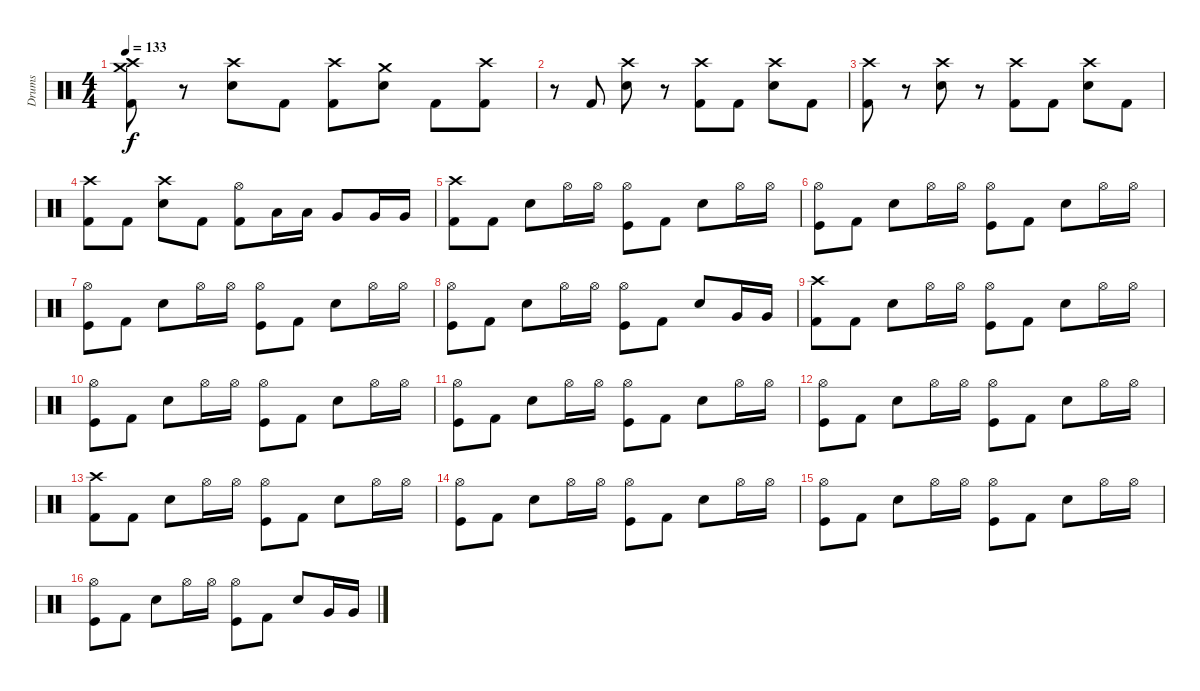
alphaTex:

\track ("Drums" "Drums") {instrument percussion}
\staff {score}
\articulation defaults
\ts (4 4)
\tempo 133
\clef neutral
\ks c
("Crash high (hit)" "Crash medium (hit)" "Kick (hit) 2").8{dy f} r.8 ("Crash high (hit)" "Electric Snare (hit)").8 "Kick (hit) 2".8 ("Crash high (hit)" "Kick (hit) 2").8 ("Crash medium (hit)" "Electric Snare (hit)").8 "Kick (hit) 2".8 ("Crash high (hit)" "Kick (hit) 2").8 |
r.8 "Kick (hit) 2".8 ("Crash high (hit)" "Electric Snare (hit)").8 r.8 ("Crash high (hit)" "Kick (hit) 2").8 "Kick (hit) 2".8 ("Crash high (hit)" "Electric Snare (hit)").8 "Kick (hit) 2".8 |
("Crash high (hit)" "Kick (hit) 2").8 r.8 ("Crash high (hit)" "Electric Snare (hit)").8 r.8 ("Crash high (hit)" "Kick (hit) 2").8 "Kick (hit) 2".8 ("Crash high (hit)" "Electric Snare (hit)").8 "Kick (hit) 2".8 |
("Crash high (hit)" "Kick (hit) 2").8 "Kick (hit) 2".8 ("Crash high (hit)" "Electric Snare (hit)").8 "Kick (hit) 2".8 ("Hi-Hat (open)" "Kick (hit) 2").8 "Low Tom (hit)".16 "Low Tom (hit)".16 "Very Low Tom (hit)".8 "Very Low Tom (hit)".16 "Very Low Tom (hit)".16 |
("Crash high (hit)" "Kick (hit) 2").8 "Kick (hit) 2".8 "Electric Snare (hit)".8 "Hi-Hat (open)".16 "Hi-Hat (open)".16 ("Hi-Hat (open)" "Kick (hit)").8 "Kick (hit) 2".8 "Electric Snare (hit)".8 "Hi-Hat (open)".16 "Hi-Hat (open)".16 |
("Hi-Hat (open)" "Kick (hit)").8 "Kick (hit) 2".8 "Electric Snare (hit)".8 "Hi-Hat (open)".16 "Hi-Hat (open)".16 ("Hi-Hat (open)" "Kick (hit)").8 "Kick (hit) 2".8 "Electric Snare (hit)".8 "Hi-Hat (open)".16 "Hi-Hat (open)".16 |
("Hi-Hat (open)" "Kick (hit)").8 "Kick (hit) 2".8 "Electric Snare (hit)".8 "Hi-Hat (open)".16 "Hi-Hat (open)".16 ("Hi-Hat (open)" "Kick (hit)").8 "Kick (hit) 2".8 "Electric Snare (hit)".8 "Hi-Hat (open)".16 "Hi-Hat (open)".16 |
("Hi-Hat (open)" "Kick (hit)").8 "Kick (hit) 2".8 "Electric Snare (hit)".8 "Hi-Hat (open)".16 "Hi-Hat (open)".16 ("Hi-Hat (open)" "Kick (hit)").8 "Kick (hit) 2".8 "Electric Snare (hit)".8 "Very Low Tom (hit)".16 "Very Low Tom (hit)".16 |
("Crash high (hit)" "Kick (hit) 2").8 "Kick (hit) 2".8 "Electric Snare (hit)".8 "Hi-Hat (open)".16 "Hi-Hat (open)".16 ("Hi-Hat (open)" "Kick (hit)").8 "Kick (hit) 2".8 "Electric Snare (hit)".8 "Hi-Hat (open)".16 "Hi-Hat (open)".16 |
("Hi-Hat (open)" "Kick (hit)").8 "Kick (hit) 2".8 "Electric Snare (hit)".8 "Hi-Hat (open)".16 "Hi-Hat (open)".16 ("Hi-Hat (open)" "Kick (hit)").8 "Kick (hit) 2".8 "Electric Snare (hit)".8 "Hi-Hat (open)".16 "Hi-Hat (open)".16 |
("Hi-Hat (open)" "Kick (hit)").8 "Kick (hit) 2".8 "Electric Snare (hit)".8 "Hi-Hat (open)".16 "Hi-Hat (open)".16 ("Hi-Hat (open)" "Kick (hit)").8 "Kick (hit) 2".8 "Electric Snare (hit)".8 "Hi-Hat (open)".16 "Hi-Hat (open)".16 |
("Hi-Hat (open)" "Kick (hit)").8 "Kick (hit) 2".8 "Electric Snare (hit)".8 "Hi-Hat (open)".16 "Hi-Hat (open)".16 ("Hi-Hat (open)" "Kick (hit)").8 "Kick (hit) 2".8 "Electric Snare (hit)".8 "Hi-Hat (open)".16 "Hi-Hat (open)".16 |
("Crash high (hit)" "Kick (hit) 2").8 "Kick (hit) 2".8 "Electric Snare (hit)".8 "Hi-Hat (open)".16 "Hi-Hat (open)".16 ("Hi-Hat (open)" "Kick (hit)").8 "Kick (hit) 2".8 "Electric Snare (hit)".8 "Hi-Hat (open)".16 "Hi-Hat (open)".16 |
("Hi-Hat (open)" "Kick (hit)").8 "Kick (hit) 2".8 "Electric Snare (hit)".8 "Hi-Hat (open)".16 "Hi-Hat (open)".16 ("Hi-Hat (open)" "Kick (hit)").8 "Kick (hit) 2".8 "Electric Snare (hit)".8 "Hi-Hat (open)".16 "Hi-Hat (open)".16 |
("Hi-Hat (open)" "Kick (hit)").8 "Kick (hit) 2".8 "Electric Snare (hit)".8 "Hi-Hat (open)".16 "Hi-Hat (open)".16 ("Hi-Hat (open)" "Kick (hit)").8 "Kick (hit) 2".8 "Electric Snare (hit)".8 "Hi-Hat (open)".16 "Hi-Hat (open)".16 |
("Hi-Hat (open)" "Kick (hit)").8 "Kick (hit) 2".8 "Electric Snare (hit)".8 "Hi-Hat (open)".16 "Hi-Hat (open)".16 ("Hi-Hat (open)" "Kick (hit)").8 "Kick (hit) 2".8 "Electric Snare (hit)".8 "Very Low Tom (hit)".16 "Very Low Tom (hit)".16
